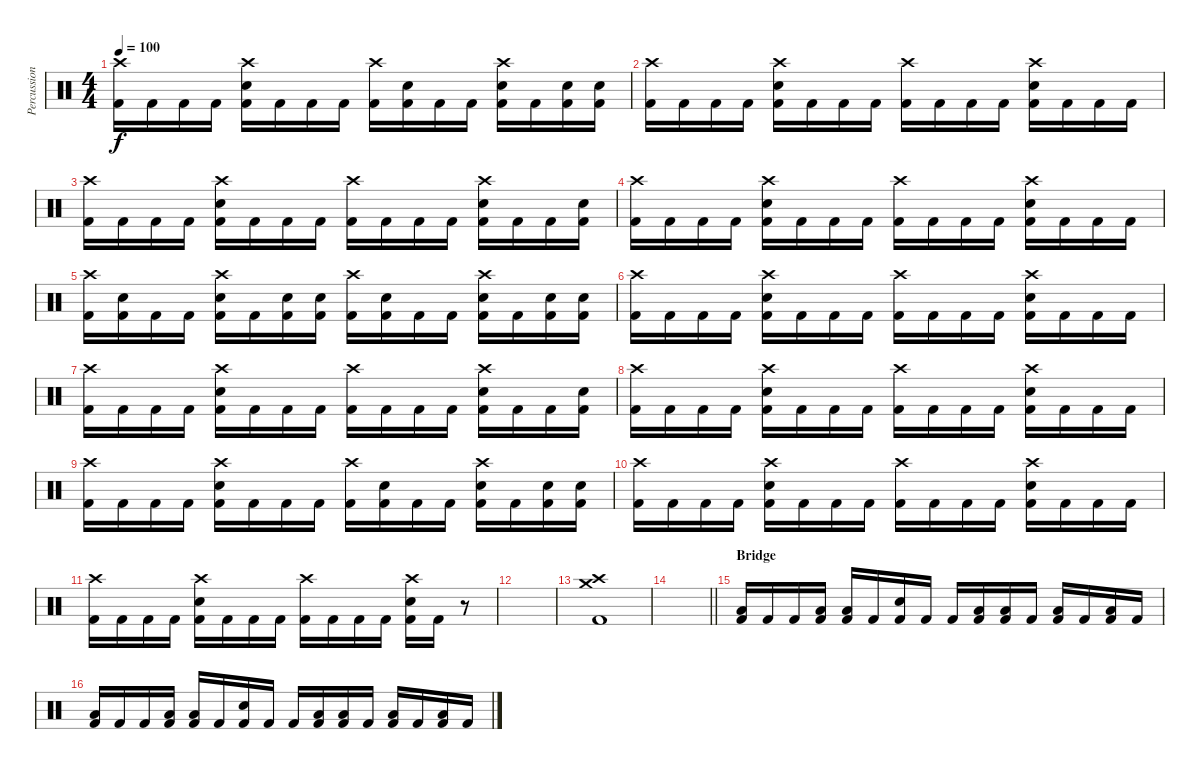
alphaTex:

\track ("Percussion" "Percussion") {instrument percussion}
\staff {score}
\articulation defaults
\ts (4 4)
\tempo 100
\clef neutral
\ks c
("Crash high (hit)" "Kick (hit) 2").16{dy f} "Kick (hit) 2".16 "Kick (hit) 2".16 "Kick (hit) 2".16 ("Crash high (hit)" "Electric Snare (hit)" "Kick (hit) 2").16 "Kick (hit) 2".16 "Kick (hit) 2".16 "Kick (hit) 2".16 ("Crash high (hit)" "Kick (hit) 2").16 ("Electric Snare (hit)" "Kick (hit) 2").16 "Kick (hit) 2".16 "Kick (hit) 2".16 ("Crash high (hit)" "Electric Snare (hit)" "Kick (hit) 2").16 "Kick (hit) 2".16 ("Electric Snare (hit)" "Kick (hit) 2").16 ("Electric Snare (hit)" "Kick (hit) 2").16 |
("Crash high (hit)" "Kick (hit) 2").16 "Kick (hit) 2".16 "Kick (hit) 2".16 "Kick (hit) 2".16 ("Crash high (hit)" "Electric Snare (hit)" "Kick (hit) 2").16 "Kick (hit) 2".16 "Kick (hit) 2".16 "Kick (hit) 2".16 ("Crash high (hit)" "Kick (hit) 2").16 "Kick (hit) 2".16 "Kick (hit) 2".16 "Kick (hit) 2".16 ("Crash high (hit)" "Electric Snare (hit)" "Kick (hit) 2").16 "Kick (hit) 2".16 "Kick (hit) 2".16 "Kick (hit) 2".16 |
("Crash high (hit)" "Kick (hit) 2").16 "Kick (hit) 2".16 "Kick (hit) 2".16 "Kick (hit) 2".16 ("Crash high (hit)" "Electric Snare (hit)" "Kick (hit) 2").16 "Kick (hit) 2".16 "Kick (hit) 2".16 "Kick (hit) 2".16 ("Crash high (hit)" "Kick (hit) 2").16 "Kick (hit) 2".16 "Kick (hit) 2".16 "Kick (hit) 2".16 ("Crash high (hit)" "Electric Snare (hit)" "Kick (hit) 2").16 "Kick (hit) 2".16 "Kick (hit) 2".16 ("Electric Snare (hit)" "Kick (hit) 2").16 |
("Crash high (hit)" "Kick (hit) 2").16 "Kick (hit) 2".16 "Kick (hit) 2".16 "Kick (hit) 2".16 ("Crash high (hit)" "Electric Snare (hit)" "Kick (hit) 2").16 "Kick (hit) 2".16 "Kick (hit) 2".16 "Kick (hit) 2".16 ("Crash high (hit)" "Kick (hit) 2").16 "Kick (hit) 2".16 "Kick (hit) 2".16 "Kick (hit) 2".16 ("Crash high (hit)" "Electric Snare (hit)" "Kick (hit) 2").16 "Kick (hit) 2".16 "Kick (hit) 2".16 "Kick (hit) 2".16 |
("Crash high (hit)" "Kick (hit) 2").16 ("Electric Snare (hit)" "Kick (hit) 2").16 "Kick (hit) 2".16 "Kick (hit) 2".16 ("Crash high (hit)" "Electric Snare (hit)" "Kick (hit) 2").16 "Kick (hit) 2".16 ("Electric Snare (hit)" "Kick (hit) 2").16 ("Electric Snare (hit)" "Kick (hit) 2").16 ("Crash high (hit)" "Kick (hit) 2").16 ("Electric Snare (hit)" "Kick (hit) 2").16 "Kick (hit) 2".16 "Kick (hit) 2".16 ("Crash high (hit)" "Electric Snare (hit)" "Kick (hit) 2").16 "Kick (hit) 2".16 ("Electric Snare (hit)" "Kick (hit) 2").16 ("Electric Snare (hit)" "Kick (hit) 2").16 |
("Crash high (hit)" "Kick (hit) 2").16 "Kick (hit) 2".16 "Kick (hit) 2".16 "Kick (hit) 2".16 ("Crash high (hit)" "Electric Snare (hit)" "Kick (hit) 2").16 "Kick (hit) 2".16 "Kick (hit) 2".16 "Kick (hit) 2".16 ("Crash high (hit)" "Kick (hit) 2").16 "Kick (hit) 2".16 "Kick (hit) 2".16 "Kick (hit) 2".16 ("Crash high (hit)" "Electric Snare (hit)" "Kick (hit) 2").16 "Kick (hit) 2".16 "Kick (hit) 2".16 "Kick (hit) 2".16 |
("Crash high (hit)" "Kick (hit) 2").16 "Kick (hit) 2".16 "Kick (hit) 2".16 "Kick (hit) 2".16 ("Crash high (hit)" "Electric Snare (hit)" "Kick (hit) 2").16 "Kick (hit) 2".16 "Kick (hit) 2".16 "Kick (hit) 2".16 ("Crash high (hit)" "Kick (hit) 2").16 "Kick (hit) 2".16 "Kick (hit) 2".16 "Kick (hit) 2".16 ("Crash high (hit)" "Electric Snare (hit)" "Kick (hit) 2").16 "Kick (hit) 2".16 "Kick (hit) 2".16 ("Electric Snare (hit)" "Kick (hit) 2").16 |
("Crash high (hit)" "Kick (hit) 2").16 "Kick (hit) 2".16 "Kick (hit) 2".16 "Kick (hit) 2".16 ("Crash high (hit)" "Electric Snare (hit)" "Kick (hit) 2").16 "Kick (hit) 2".16 "Kick (hit) 2".16 "Kick (hit) 2".16 ("Crash high (hit)" "Kick (hit) 2").16 "Kick (hit) 2".16 "Kick (hit) 2".16 "Kick (hit) 2".16 ("Crash high (hit)" "Electric Snare (hit)" "Kick (hit) 2").16 "Kick (hit) 2".16 "Kick (hit) 2".16 "Kick (hit) 2".16 |
("Crash high (hit)" "Kick (hit) 2").16 "Kick (hit) 2".16 "Kick (hit) 2".16 "Kick (hit) 2".16 ("Crash high (hit)" "Electric Snare (hit)" "Kick (hit) 2").16 "Kick (hit) 2".16 "Kick (hit) 2".16 "Kick (hit) 2".16 ("Crash high (hit)" "Kick (hit) 2").16 ("Electric Snare (hit)" "Kick (hit) 2").16 "Kick (hit) 2".16 "Kick (hit) 2".16 ("Crash high (hit)" "Electric Snare (hit)" "Kick (hit) 2").16 "Kick (hit) 2".16 ("Electric Snare (hit)" "Kick (hit) 2").16 ("Electric Snare (hit)" "Kick (hit) 2").16 |
("Crash high (hit)" "Kick (hit) 2").16 "Kick (hit) 2".16 "Kick (hit) 2".16 "Kick (hit) 2".16 ("Crash high (hit)" "Electric Snare (hit)" "Kick (hit) 2").16 "Kick (hit) 2".16 "Kick (hit) 2".16 "Kick (hit) 2".16 ("Crash high (hit)" "Kick (hit) 2").16 "Kick (hit) 2".16 "Kick (hit) 2".16 "Kick (hit) 2".16 ("Crash high (hit)" "Electric Snare (hit)" "Kick (hit) 2").16 "Kick (hit) 2".16 "Kick (hit) 2".16 "Kick (hit) 2".16 |
("Crash high (hit)" "Kick (hit) 2").16 "Kick (hit) 2".16 "Kick (hit) 2".16 "Kick (hit) 2".16 ("Crash high (hit)" "Electric Snare (hit)" "Kick (hit) 2").16 "Kick (hit) 2".16 "Kick (hit) 2".16 "Kick (hit) 2".16 ("Crash high (hit)" "Kick (hit) 2").16 "Kick (hit) 2".16 "Kick (hit) 2".16 "Kick (hit) 2".16 ("Crash high (hit)" "Electric Snare (hit)" "Kick (hit) 2").16 "Kick (hit) 2".16 r.8 |
|
("Crash high (hit)" "Crash medium (hit)" "Kick (hit) 2").1 |
\barLineRight lightlight
|
\section ("" "Bridge")
("Low Floor Tom (hit)" "Kick (hit) 2").16 "Kick (hit) 2".16 "Kick (hit) 2".16 ("Low Floor Tom (hit)" "Kick (hit) 2").16 ("Low Floor Tom (hit)" "Kick (hit) 2").16 "Kick (hit) 2".16 ("Electric Snare (hit)" "Kick (hit) 2").16 "Kick (hit) 2".16 "Kick (hit) 2".16 ("Low Floor Tom (hit)" "Kick (hit) 2").16 ("Low Floor Tom (hit)" "Kick (hit) 2").16 "Kick (hit) 2".16 ("Low Floor Tom (hit)" "Kick (hit) 2").16 "Kick (hit) 2".16 ("Low Floor Tom (hit)" "Kick (hit) 2").16 "Kick (hit) 2".16 |
("Low Floor Tom (hit)" "Kick (hit) 2").16 "Kick (hit) 2".16 "Kick (hit) 2".16 ("Low Floor Tom (hit)" "Kick (hit) 2").16 ("Low Floor Tom (hit)" "Kick (hit) 2").16 "Kick (hit) 2".16 ("Electric Snare (hit)" "Kick (hit) 2").16 "Kick (hit) 2".16 "Kick (hit) 2".16 ("Low Floor Tom (hit)" "Kick (hit) 2").16 ("Low Floor Tom (hit)" "Kick (hit) 2").16 "Kick (hit) 2".16 ("Low Floor Tom (hit)" "Kick (hit) 2").16 "Kick (hit) 2".16 ("Low Floor Tom (hit)" "Kick (hit) 2").16 "Kick (hit) 2".16
